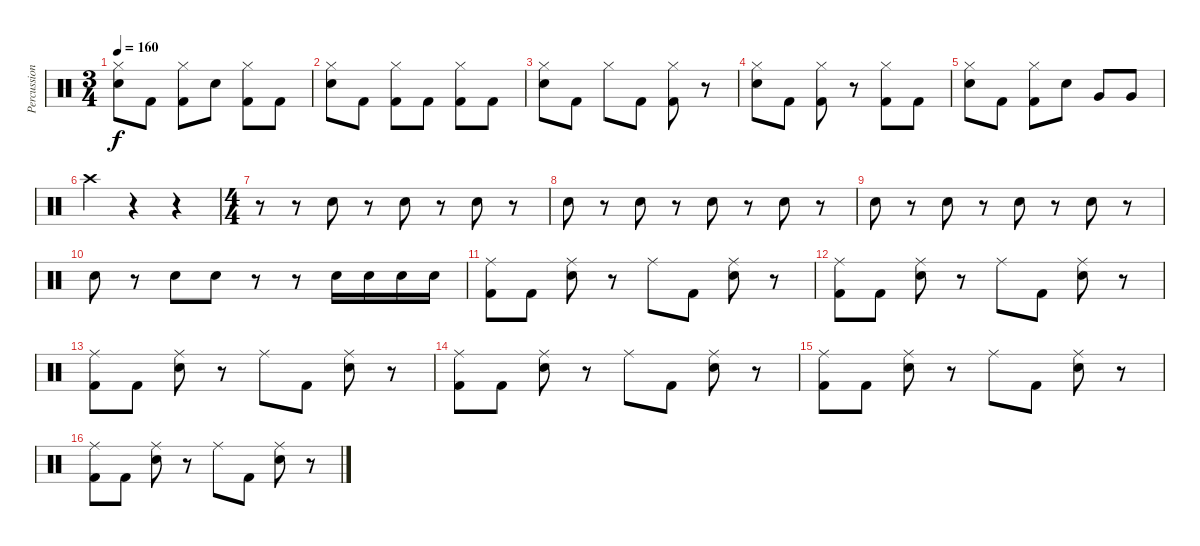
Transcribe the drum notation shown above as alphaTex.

\track ("Percussion" "Percussion") {instrument percussion}
\staff {score}
\articulation defaults
\ts (3 4)
\tempo 160
\clef neutral
\ks c
("Hi-Hat (closed)" "Electric Snare (hit)").8{dy f} "Kick (hit) 2".8 ("Hi-Hat (closed)" "Kick (hit) 2").8 "Electric Snare (hit)".8 ("Hi-Hat (closed)" "Kick (hit) 2").8 "Kick (hit) 2".8 |
("Hi-Hat (closed)" "Electric Snare (hit)").8 "Kick (hit) 2".8 ("Hi-Hat (closed)" "Kick (hit) 2").8 "Kick (hit) 2".8 ("Hi-Hat (closed)" "Kick (hit) 2").8 "Kick (hit) 2".8 |
("Hi-Hat (closed)" "Electric Snare (hit)").8 "Kick (hit) 2".8 "Hi-Hat (closed)".8 "Kick (hit) 2".8 ("Hi-Hat (closed)" "Kick (hit) 2").8 r.8 |
("Hi-Hat (closed)" "Electric Snare (hit)").8 "Kick (hit) 2".8 ("Hi-Hat (closed)" "Kick (hit) 2").8 r.8 ("Hi-Hat (closed)" "Kick (hit) 2").8 "Kick (hit) 2".8 |
("Hi-Hat (closed)" "Electric Snare (hit)").8 "Kick (hit) 2".8 ("Hi-Hat (closed)" "Kick (hit) 2").8 "Electric Snare (hit)".8 "Very Low Tom (hit)".8 "Very Low Tom (hit)".8 |
"Crash high (hit)".4 r.4 r.4 |
\ts (4 4)
r.8 r.8 "Electric Snare (hit)".8 r.8 "Electric Snare (hit)".8 r.8 "Electric Snare (hit)".8 r.8 |
"Electric Snare (hit)".8 r.8 "Electric Snare (hit)".8 r.8 "Electric Snare (hit)".8 r.8 "Electric Snare (hit)".8 r.8 |
"Electric Snare (hit)".8 r.8 "Electric Snare (hit)".8 r.8 "Electric Snare (hit)".8 r.8 "Electric Snare (hit)".8 r.8 |
"Electric Snare (hit)".8 r.8 "Electric Snare (hit)".8 "Electric Snare (hit)".8 r.8 r.8 "Electric Snare (hit)".16 "Electric Snare (hit)".16 "Electric Snare (hit)".16 "Electric Snare (hit)".16 |
("Ride (middle)" "Kick (hit) 2").8 "Kick (hit) 2".8 ("Ride (middle)" "Electric Snare (hit)").8 r.8 "Ride (middle)".8 "Kick (hit) 2".8 ("Ride (middle)" "Electric Snare (hit)").8 r.8 |
("Ride (middle)" "Kick (hit) 2").8 "Kick (hit) 2".8 ("Ride (middle)" "Electric Snare (hit)").8 r.8 "Ride (middle)".8 "Kick (hit) 2".8 ("Ride (middle)" "Electric Snare (hit)").8 r.8 |
("Ride (middle)" "Kick (hit) 2").8 "Kick (hit) 2".8 ("Ride (middle)" "Electric Snare (hit)").8 r.8 "Ride (middle)".8 "Kick (hit) 2".8 ("Ride (middle)" "Electric Snare (hit)").8 r.8 |
("Ride (middle)" "Kick (hit) 2").8 "Kick (hit) 2".8 ("Ride (middle)" "Electric Snare (hit)").8 r.8 "Ride (middle)".8 "Kick (hit) 2".8 ("Ride (middle)" "Electric Snare (hit)").8 r.8 |
("Ride (middle)" "Kick (hit) 2").8 "Kick (hit) 2".8 ("Ride (middle)" "Electric Snare (hit)").8 r.8 "Ride (middle)".8 "Kick (hit) 2".8 ("Ride (middle)" "Electric Snare (hit)").8 r.8 |
("Ride (middle)" "Kick (hit) 2").8 "Kick (hit) 2".8 ("Ride (middle)" "Electric Snare (hit)").8 r.8 "Ride (middle)".8 "Kick (hit) 2".8 ("Ride (middle)" "Electric Snare (hit)").8 r.8
